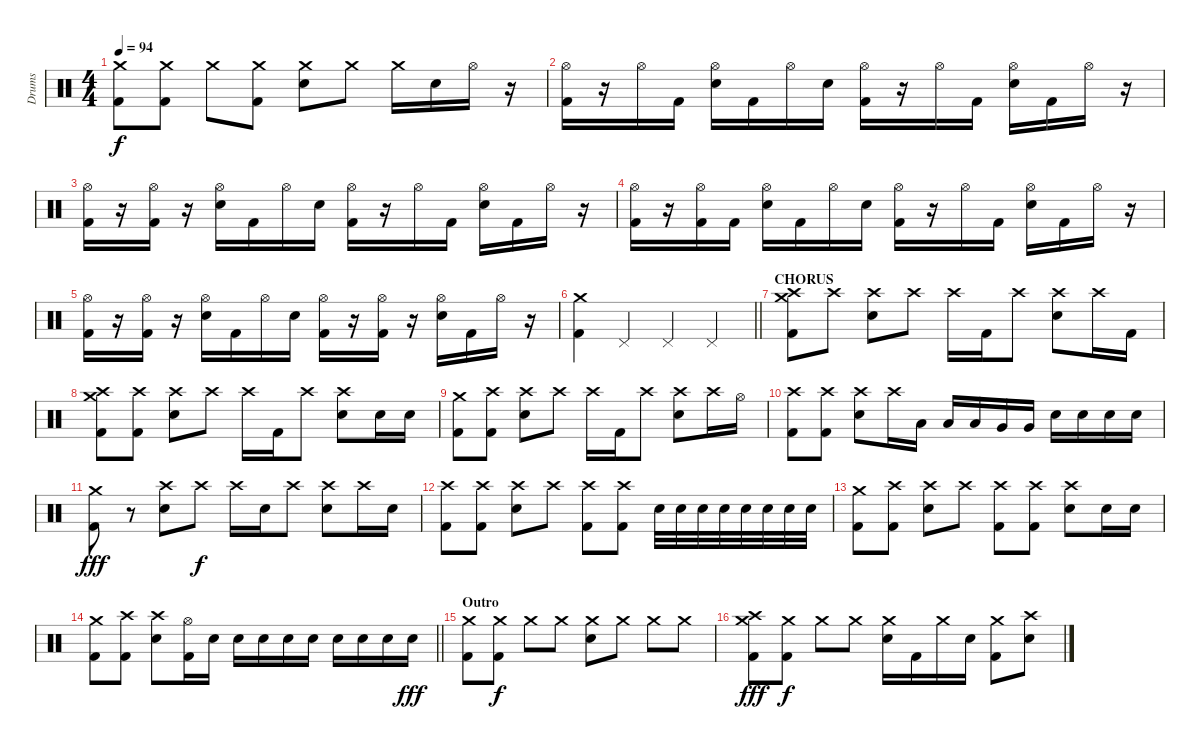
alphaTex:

\track ("Drums" "Drums") {instrument percussion}
\staff {score}
\articulation defaults
\ts (4 4)
\tempo 94
\clef neutral
\ks c
("Crash medium (hit)" "Kick (hit) 2").8{dy f} ("Crash medium (hit)" "Kick (hit) 2").8 "Crash medium (hit)".8 ("Crash medium (hit)" "Kick (hit) 2").8 ("Crash medium (hit)" "Electric Snare (hit)").8 "Crash medium (hit)".8 "Crash medium (hit)".16 "Electric Snare (hit)".16 "Hi-Hat (open)".16 r.16 |
("Hi-Hat (open)" "Kick (hit) 2").16 r.16 "Hi-Hat (open)".16 "Kick (hit) 2".16 ("Hi-Hat (open)" "Electric Snare (hit)").16 "Kick (hit) 2".16 "Hi-Hat (open)".16 "Electric Snare (hit)".16 ("Hi-Hat (open)" "Kick (hit) 2").16 r.16 "Hi-Hat (open)".16 "Kick (hit) 2".16 ("Hi-Hat (open)" "Electric Snare (hit)").16 "Kick (hit) 2".16 "Hi-Hat (open)".16 r.16 |
("Hi-Hat (open)" "Kick (hit) 2").16 r.16 ("Hi-Hat (open)" "Kick (hit) 2").16 r.16 ("Hi-Hat (open)" "Electric Snare (hit)").16 "Kick (hit) 2".16 "Hi-Hat (open)".16 "Electric Snare (hit)".16 ("Hi-Hat (open)" "Kick (hit) 2").16 r.16 "Hi-Hat (open)".16 "Kick (hit) 2".16 ("Hi-Hat (open)" "Electric Snare (hit)").16 "Kick (hit) 2".16 "Hi-Hat (open)".16 r.16 |
("Hi-Hat (open)" "Kick (hit) 2").16 r.16 ("Hi-Hat (open)" "Kick (hit) 2").16 "Kick (hit) 2".16 ("Hi-Hat (open)" "Electric Snare (hit)").16 "Kick (hit) 2".16 "Hi-Hat (open)".16 "Electric Snare (hit)".16 ("Hi-Hat (open)" "Kick (hit) 2").16 r.16 "Hi-Hat (open)".16 "Kick (hit) 2".16 ("Hi-Hat (open)" "Electric Snare (hit)").16 "Kick (hit) 2".16 "Hi-Hat (open)".16 r.16 |
("Hi-Hat (open)" "Kick (hit) 2").16 r.16 ("Hi-Hat (open)" "Kick (hit) 2").16 r.16 ("Hi-Hat (open)" "Electric Snare (hit)").16 "Kick (hit) 2".16 "Hi-Hat (open)".16 "Electric Snare (hit)".16 ("Hi-Hat (open)" "Kick (hit) 2").16 r.16 ("Hi-Hat (open)" "Kick (hit) 2").16 r.16 ("Hi-Hat (open)" "Electric Snare (hit)").16 "Kick (hit) 2".16 "Hi-Hat (open)".16 r.16 |
\barLineRight lightlight
("Crash medium (hit)" "Kick (hit) 2").4 "Pedal Hi-Hat (hit)".4 "Pedal Hi-Hat (hit)".4 "Pedal Hi-Hat (hit)".4 |
\section ("" "CHORUS")
("Crash medium (hit)" "Crash high (hit)" "Kick (hit) 2").8 "Crash high (hit)".8 ("Crash high (hit)" "Electric Snare (hit)").8 "Crash high (hit)".8 "Crash high (hit)".16 "Kick (hit) 2".16 "Crash high (hit)".8 ("Crash high (hit)" "Electric Snare (hit)").8 "Crash high (hit)".16 "Kick (hit) 2".16 |
("Crash medium (hit)" "Crash high (hit)" "Kick (hit) 2").8 ("Crash high (hit)" "Kick (hit) 2").8 ("Crash high (hit)" "Electric Snare (hit)").8 "Crash high (hit)".8 "Crash high (hit)".16 "Kick (hit) 2".16 "Crash high (hit)".8 ("Crash high (hit)" "Electric Snare (hit)").8 "Electric Snare (hit)".16 "Electric Snare (hit)".16 |
("Crash medium (hit)" "Kick (hit) 2").8 ("Crash high (hit)" "Kick (hit) 2").8 ("Crash high (hit)" "Electric Snare (hit)").8 "Crash high (hit)".8 "Crash high (hit)".16 "Kick (hit) 2".16 "Crash high (hit)".8 ("Crash high (hit)" "Electric Snare (hit)").8 "Crash high (hit)".16 "Hi-Hat (open)".16 |
("Crash high (hit)" "Kick (hit) 2").8 ("Crash high (hit)" "Kick (hit) 2").8 ("Crash high (hit)" "Electric Snare (hit)").8 "Crash high (hit)".16 "Low Tom (hit)".16 "Low Tom (hit)".16 "Low Tom (hit)".16 "Very Low Tom (hit)".16 "Very Low Tom (hit)".16 "Electric Snare (hit)".16 "Electric Snare (hit)".16 "Electric Snare (hit)".16 "Electric Snare (hit)".16 |
("Crash medium (hit)" "Kick (hit) 2").8{dy fff} r.8 ("Crash high (hit)" "Electric Snare (hit)").8 "Crash high (hit)".8{dy f} "Crash high (hit)".16 "Electric Snare (hit)".16 "Crash high (hit)".8 ("Crash high (hit)" "Electric Snare (hit)").8 "Crash high (hit)".16 "Electric Snare (hit)".16 |
("Crash high (hit)" "Kick (hit) 2").8 ("Crash high (hit)" "Kick (hit) 2").8 ("Crash high (hit)" "Electric Snare (hit)").8 "Crash high (hit)".8 ("Crash high (hit)" "Kick (hit) 2").8 ("Crash high (hit)" "Kick (hit) 2").8 "Electric Snare (hit)".32 "Electric Snare (hit)".32 "Electric Snare (hit)".32 "Electric Snare (hit)".32 "Electric Snare (hit)".32 "Electric Snare (hit)".32 "Electric Snare (hit)".32 "Electric Snare (hit)".32 |
("Crash medium (hit)" "Kick (hit) 2").8 ("Crash high (hit)" "Kick (hit) 2").8 ("Crash high (hit)" "Electric Snare (hit)").8 "Crash high (hit)".8 ("Crash high (hit)" "Kick (hit) 2").8 ("Crash high (hit)" "Kick (hit) 2").8 ("Crash high (hit)" "Electric Snare (hit)").8 "Electric Snare (hit)".16 "Electric Snare (hit)".16 |
\barLineRight lightlight
("Crash medium (hit)" "Kick (hit) 2").8 ("Crash high (hit)" "Kick (hit) 2").8 ("Crash high (hit)" "Electric Snare (hit)").8 ("Hi-Hat (open)" "Kick (hit) 2").16 "Electric Snare (hit)".16 "Electric Snare (hit)".16 "Electric Snare (hit)".16 "Electric Snare (hit)".16 "Electric Snare (hit)".16 "Electric Snare (hit)".16 "Electric Snare (hit)".16 "Electric Snare (hit)".16 "Electric Snare (hit)".16{dy fff} |
\section ("" "Outro")
("Crash medium (hit)" "Kick (hit) 2").8 ("Crash medium (hit)" "Kick (hit) 2").8{dy f} "Crash medium (hit)".8 "Crash medium (hit)".8 ("Crash medium (hit)" "Electric Snare (hit)").8 "Crash medium (hit)".8 "Crash medium (hit)".8 "Crash medium (hit)".8 |
("Crash high (hit)" "Crash medium (hit)" "Kick (hit) 2").8{dy fff} ("Crash medium (hit)" "Kick (hit) 2").8{dy f} "Crash medium (hit)".8 "Crash medium (hit)".8 ("Crash medium (hit)" "Electric Snare (hit)").16 "Kick (hit) 2".16 "Crash medium (hit)".16 "Electric Snare (hit)".16 ("Crash medium (hit)" "Kick (hit) 2").8 ("Crash high (hit)" "Electric Snare (hit)").8
